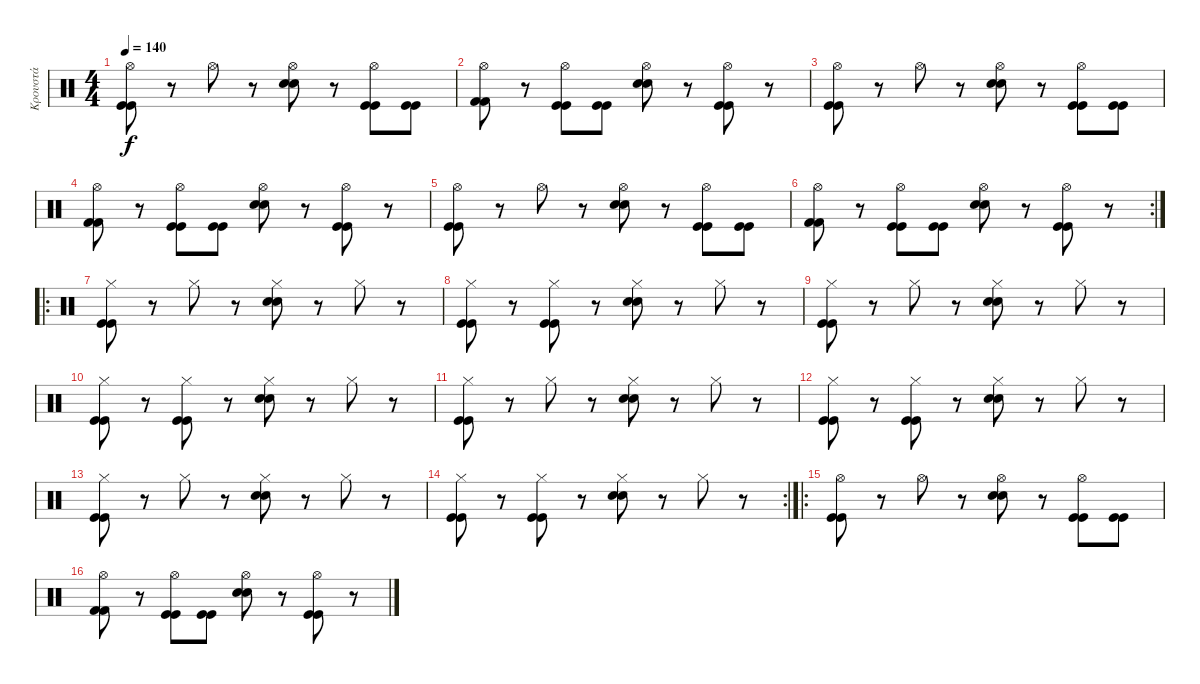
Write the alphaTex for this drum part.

\track ("Κρουστά" "Κρουστά") {instrument percussion}
\staff {score}
\articulation defaults
\ts (4 4)
\tempo 140
\clef neutral
\ks c
("Hi-Hat (open)" "Kick (hit)" "Kick (hit)").8{dy f} r.8 "Hi-Hat (open)".8 r.8 ("Hi-Hat (open)" "Electric Snare (hit)" "Electric Snare (hit)").8 r.8 ("Hi-Hat (open)" "Kick (hit)" "Kick (hit)").8 ("Kick (hit)" "Kick (hit)").8 |
("Hi-Hat (open)" "Kick (hit) 2" "Kick (hit) 2").8 r.8 ("Hi-Hat (open)" "Kick (hit)" "Kick (hit)").8 ("Kick (hit)" "Kick (hit)").8 ("Hi-Hat (open)" "Electric Snare (hit)" "Electric Snare (hit)").8 r.8 ("Hi-Hat (open)" "Kick (hit)" "Kick (hit)").8 r.8 |
("Hi-Hat (open)" "Kick (hit)" "Kick (hit)").8 r.8 "Hi-Hat (open)".8 r.8 ("Hi-Hat (open)" "Electric Snare (hit)" "Electric Snare (hit)").8 r.8 ("Hi-Hat (open)" "Kick (hit)" "Kick (hit)").8 ("Kick (hit)" "Kick (hit)").8 |
("Hi-Hat (open)" "Kick (hit) 2" "Kick (hit) 2").8 r.8 ("Hi-Hat (open)" "Kick (hit)" "Kick (hit)").8 ("Kick (hit)" "Kick (hit)").8 ("Hi-Hat (open)" "Electric Snare (hit)" "Electric Snare (hit)").8 r.8 ("Hi-Hat (open)" "Kick (hit)" "Kick (hit)").8 r.8 |
("Hi-Hat (open)" "Kick (hit)" "Kick (hit)").8 r.8 "Hi-Hat (open)".8 r.8 ("Hi-Hat (open)" "Electric Snare (hit)" "Electric Snare (hit)").8 r.8 ("Hi-Hat (open)" "Kick (hit)" "Kick (hit)").8 ("Kick (hit)" "Kick (hit)").8 |
\rc 2
("Hi-Hat (open)" "Kick (hit) 2" "Kick (hit) 2").8 r.8 ("Hi-Hat (open)" "Kick (hit)" "Kick (hit)").8 ("Kick (hit)" "Kick (hit)").8 ("Hi-Hat (open)" "Electric Snare (hit)" "Electric Snare (hit)").8 r.8 ("Hi-Hat (open)" "Kick (hit)" "Kick (hit)").8 r.8 |
\ro
("Hi-Hat (closed)" "Kick (hit)" "Kick (hit)").8 r.8 "Hi-Hat (closed)".8 r.8 ("Hi-Hat (closed)" "Electric Snare (hit)" "Electric Snare (hit)").8 r.8 "Hi-Hat (closed)".8 r.8 |
("Hi-Hat (closed)" "Kick (hit)" "Kick (hit)").8 r.8 ("Hi-Hat (closed)" "Kick (hit)" "Kick (hit)").8 r.8 ("Hi-Hat (closed)" "Electric Snare (hit)" "Electric Snare (hit)").8 r.8 "Hi-Hat (closed)".8 r.8 |
("Hi-Hat (closed)" "Kick (hit)" "Kick (hit)").8 r.8 "Hi-Hat (closed)".8 r.8 ("Hi-Hat (closed)" "Electric Snare (hit)" "Electric Snare (hit)").8 r.8 "Hi-Hat (closed)".8 r.8 |
("Hi-Hat (closed)" "Kick (hit)" "Kick (hit)").8 r.8 ("Hi-Hat (closed)" "Kick (hit)" "Kick (hit)").8 r.8 ("Hi-Hat (closed)" "Electric Snare (hit)" "Electric Snare (hit)").8 r.8 "Hi-Hat (closed)".8 r.8 |
("Hi-Hat (closed)" "Kick (hit)" "Kick (hit)").8 r.8 "Hi-Hat (closed)".8 r.8 ("Hi-Hat (closed)" "Electric Snare (hit)" "Electric Snare (hit)").8 r.8 "Hi-Hat (closed)".8 r.8 |
("Hi-Hat (closed)" "Kick (hit)" "Kick (hit)").8 r.8 ("Hi-Hat (closed)" "Kick (hit)" "Kick (hit)").8 r.8 ("Hi-Hat (closed)" "Electric Snare (hit)" "Electric Snare (hit)").8 r.8 "Hi-Hat (closed)".8 r.8 |
("Hi-Hat (closed)" "Kick (hit)" "Kick (hit)").8 r.8 "Hi-Hat (closed)".8 r.8 ("Hi-Hat (closed)" "Electric Snare (hit)" "Electric Snare (hit)").8 r.8 "Hi-Hat (closed)".8 r.8 |
\rc 2
("Hi-Hat (closed)" "Kick (hit)" "Kick (hit)").8 r.8 ("Hi-Hat (closed)" "Kick (hit)" "Kick (hit)").8 r.8 ("Hi-Hat (closed)" "Electric Snare (hit)" "Electric Snare (hit)").8 r.8 "Hi-Hat (closed)".8 r.8 |
\ro
("Hi-Hat (open)" "Kick (hit)" "Kick (hit)").8 r.8 "Hi-Hat (open)".8 r.8 ("Hi-Hat (open)" "Electric Snare (hit)" "Electric Snare (hit)").8 r.8 ("Hi-Hat (open)" "Kick (hit)" "Kick (hit)").8 ("Kick (hit)" "Kick (hit)").8 |
("Hi-Hat (open)" "Kick (hit) 2" "Kick (hit) 2").8 r.8 ("Hi-Hat (open)" "Kick (hit)" "Kick (hit)").8 ("Kick (hit)" "Kick (hit)").8 ("Hi-Hat (open)" "Electric Snare (hit)" "Electric Snare (hit)").8 r.8 ("Hi-Hat (open)" "Kick (hit)" "Kick (hit)").8 r.8
